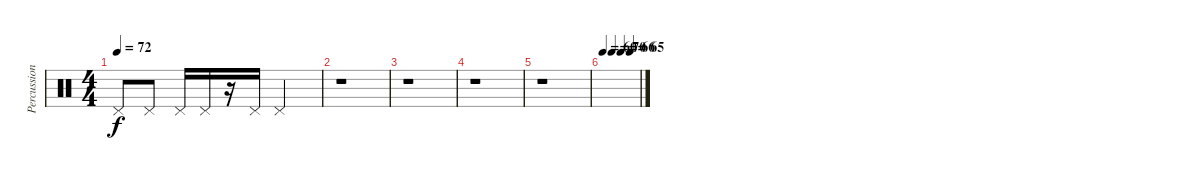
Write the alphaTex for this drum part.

\track ("Percussion" "Percussion") {instrument percussion}
\staff {score}
\articulation defaults
\ts (4 4)
\tempo 72
\clef neutral
\ks c "Pedal Hi-Hat (hit)".8{dy f} "Pedal Hi-Hat (hit)".8 "Pedal Hi-Hat (hit)".16 "Pedal Hi-Hat (hit)".16
r.16 "Pedal Hi-Hat (hit)".16 "Pedal Hi-Hat (hit)".2 |
r.1 |
r.1 |
r.1 |
r.1 |
\tempo 60
\tempo (70 0.25)
\tempo (66 0.5)
\tempo (65 0.75)
